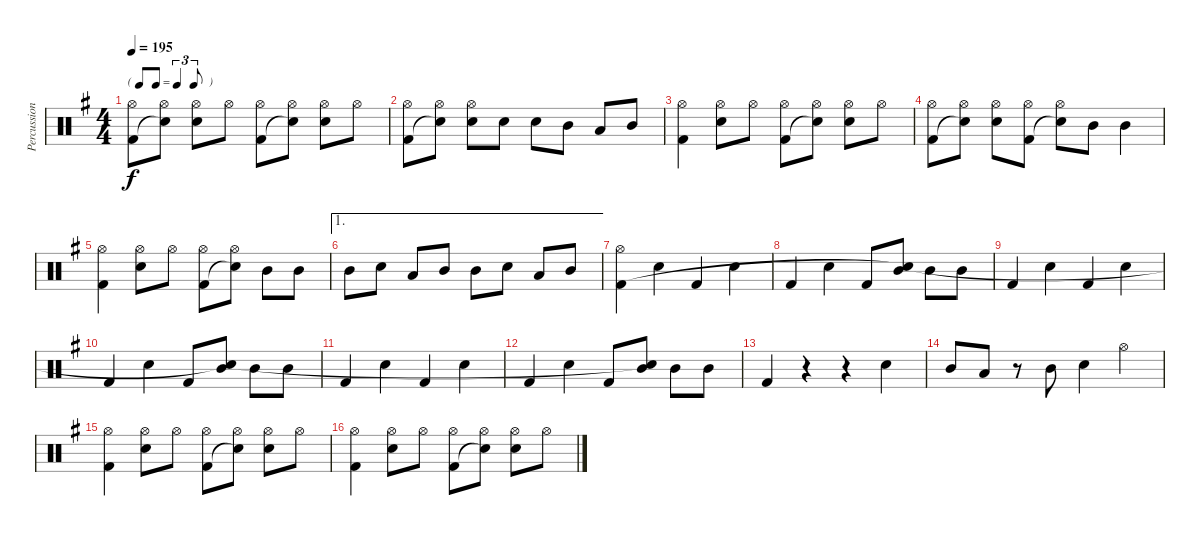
\track ("Percussion" "Percussion") {instrument percussion}
\staff {score}
\articulation defaults
\ts (4 4)
\tf triplet8th
\tempo 195
\clef neutral
\ks g
("Hi-Hat (open)" "Kick (hit) 2").8{dy f} ("Hi-Hat (open)" "Snare (hit)"{t}).8 ("Hi-Hat (open)" "Snare (hit) 2").8 "Hi-Hat (open)".8 ("Hi-Hat (open)" "Kick (hit) 2").8 ("Hi-Hat (open)" "Snare (hit)"{t}).8 ("Hi-Hat (open)" "Snare (hit) 2").8 "Hi-Hat (open)".8 |
("Hi-Hat (open)" "Kick (hit) 2").8 ("Hi-Hat (open)" "Snare (hit)"{t}).8 ("Hi-Hat (open)" "Snare (hit) 2").8 "Snare (hit) 2".8 "Snare (hit) 2".8 "Mid Tom (hit)".8 "Low Tom (hit)".8 "Mid Tom (hit)".8 |
("Hi-Hat (open)" "Kick (hit) 2").4 ("Hi-Hat (open)" "Snare (hit) 2").8 "Hi-Hat (open)".8 ("Hi-Hat (open)" "Kick (hit) 2").8 ("Hi-Hat (open)" "Snare (hit)"{t}).8 ("Hi-Hat (open)" "Snare (hit) 2").8 "Hi-Hat (open)".8 |
("Hi-Hat (open)" "Kick (hit) 2").8 ("Hi-Hat (open)" "Snare (hit)"{t}).8 ("Hi-Hat (open)" "Snare (hit) 2").8 ("Hi-Hat (open)" "Kick (hit) 2").8 ("Hi-Hat (open)" "Snare (hit)"{t}).8 "Mid Tom (hit)".8 "Mid Tom (hit)".4 |
("Hi-Hat (open)" "Kick (hit) 2").4 ("Hi-Hat (open)" "Snare (hit) 2").8 "Hi-Hat (open)".8 ("Hi-Hat (open)" "Kick (hit) 2").8 ("Hi-Hat (open)" "Snare (hit)"{t}).8 "Mid Tom (hit)".8 "Mid Tom (hit)".8 |
\ae 1 "Mid Tom (hit)".8 "Snare (hit) 2".8 "Low Tom (hit)".8 "Mid Tom (hit)".8 "Mid Tom (hit)".8 "Snare (hit) 2".8 "Low Tom (hit)".8 "Mid Tom (hit)".8
|
("Hi-Hat (open)" "Kick (hit) 2").4 "Snare (hit) 2".4 "Kick (hit) 2".4 "Snare (hit) 2".4 |
"Kick (hit) 2".4 "Snare (hit) 2".4 "Kick (hit) 2".8 ("Mid Tom (hit)" "Snare (hit)"{t}).8 "Mid Tom (hit)".8 "Mid Tom (hit)".8 |
"Kick (hit) 2".4 "Snare (hit) 2".4 "Kick (hit) 2".4 "Snare (hit) 2".4 |
"Kick (hit) 2".4 "Snare (hit) 2".4 "Kick (hit) 2".8 ("Mid Tom (hit)" "Snare (hit)"{t}).8 "Mid Tom (hit)".8 "Mid Tom (hit)".8 |
"Kick (hit) 2".4 "Snare (hit) 2".4 "Kick (hit) 2".4 "Snare (hit) 2".4 |
"Kick (hit) 2".4 "Snare (hit) 2".4 "Kick (hit) 2".8 ("Mid Tom (hit)" "Snare (hit)"{t}).8 "Mid Tom (hit)".8 "Mid Tom (hit)".8 |
"Kick (hit) 2".4 r.4 r.4 "Snare (hit) 2".4 |
"Mid Tom (hit)".8 "Low Tom (hit)".8 r.8 "Mid Tom (hit)".8 "Snare (hit) 2".4 "Hi-Hat (open)".4 |
("Hi-Hat (open)" "Kick (hit) 2").4 ("Hi-Hat (open)" "Snare (hit) 2").8 "Hi-Hat (open)".8 ("Hi-Hat (open)" "Kick (hit) 2").8 ("Hi-Hat (open)" "Snare (hit)"{t}).8 ("Hi-Hat (open)" "Snare (hit) 2").8 "Hi-Hat (open)".8 |
("Hi-Hat (open)" "Kick (hit) 2").4 ("Hi-Hat (open)" "Snare (hit) 2").8 "Hi-Hat (open)".8 ("Hi-Hat (open)" "Kick (hit) 2").8 ("Hi-Hat (open)" "Snare (hit)"{t}).8 ("Hi-Hat (open)" "Snare (hit) 2").8 "Hi-Hat (open)".8
